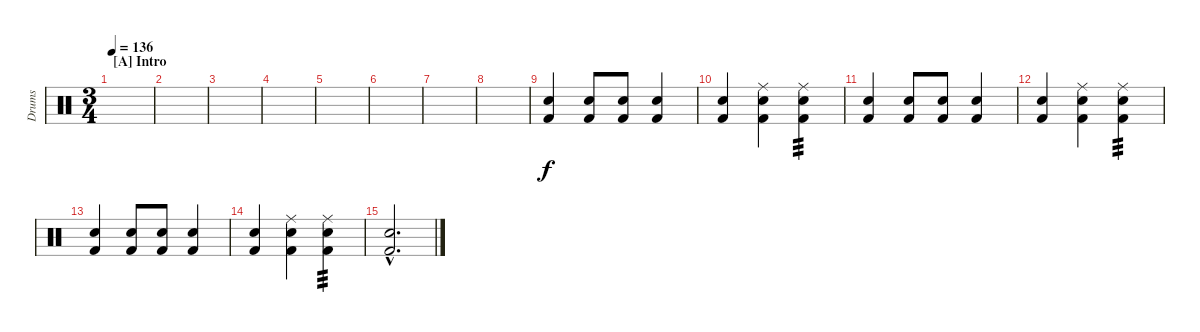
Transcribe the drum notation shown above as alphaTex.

\track ("Drums" "Drums") {instrument percussion}
\staff {score}
\articulation defaults
\ts (3 4)
\section ("" "[A] Intro")
\tempo 136
\clef neutral
\ks aminor
|
|
|
|
|
|
|
|
("Snare (hit) 2" "Kick (hit) 2").4 ("Snare (hit) 2" "Kick (hit) 2").8 ("Snare (hit) 2" "Kick (hit) 2").8 ("Snare (hit) 2" "Kick (hit) 2").4 |
("Snare (hit) 2" "Kick (hit) 2").4 ("Ride (middle)" "Snare (hit) 2" "Kick (hit) 2").4 ("Ride (middle)" "Snare (hit) 2" "Kick (hit) 2").4{tp 3} |
("Snare (hit) 2" "Kick (hit) 2").4 ("Snare (hit) 2" "Kick (hit) 2").8 ("Snare (hit) 2" "Kick (hit) 2").8 ("Snare (hit) 2" "Kick (hit) 2").4 |
("Snare (hit) 2" "Kick (hit) 2").4 ("Ride (middle)" "Snare (hit) 2" "Kick (hit) 2").4 ("Ride (middle)" "Snare (hit) 2" "Kick (hit) 2").4{tp 3} |
("Snare (hit) 2" "Kick (hit) 2").4 ("Snare (hit) 2" "Kick (hit) 2").8 ("Snare (hit) 2" "Kick (hit) 2").8 ("Snare (hit) 2" "Kick (hit) 2").4 |
("Snare (hit) 2" "Kick (hit) 2").4 ("Ride (middle)" "Snare (hit) 2" "Kick (hit) 2").4 ("Ride (middle)" "Snare (hit) 2" "Kick (hit) 2").4{tp 3} |
("Snare (hit) 2"{hac} "Kick (hit) 2"{hac}).2{d}
